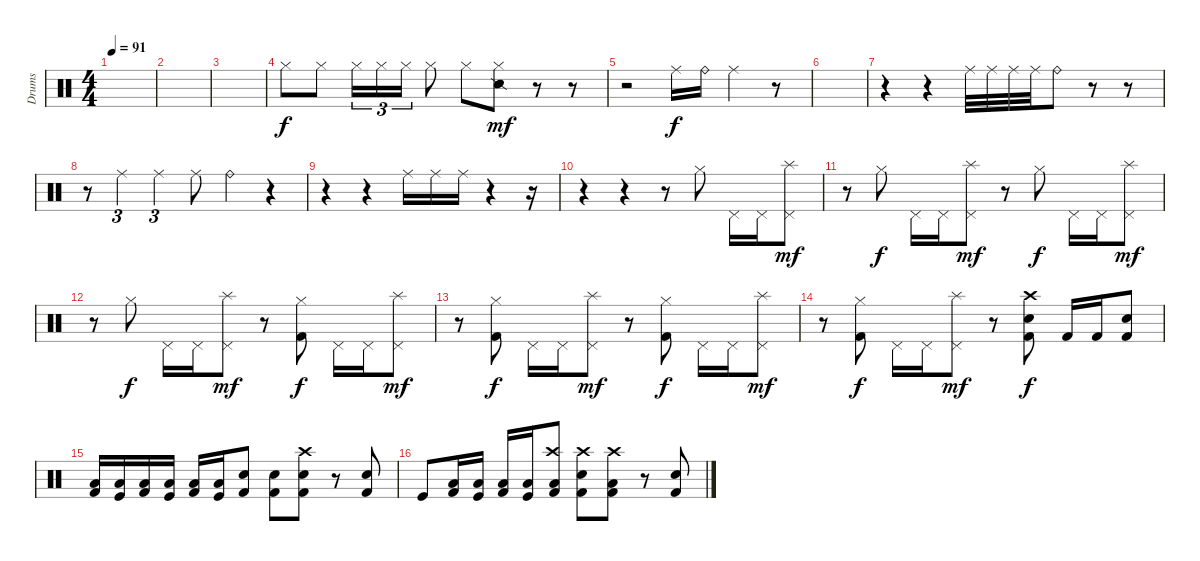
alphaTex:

\track ("Drums" "Drums") {instrument percussion}
\staff {score}
\articulation defaults
\ts (4 4)
\tempo 91
\clef neutral
\ks c
|
|
|
"Hi-Hat (closed)".8 "Hi-Hat (closed)".8 "Hi-Hat (closed)".16{tu (3 2)} "Hi-Hat (closed)".16{tu (3 2)} "Hi-Hat (closed)".16{tu (3 2)} "Hi-Hat (closed)".8 "Hi-Hat (closed)".8 ("Hi-Hat (closed)" "Snare (side stick) 2").8{dy mf} r.8 r.8 |
r.2 "Ride (middle)".16{dy f} "Ride (bell)".16 "Ride (middle)".4 r.8 |
|
r.4 r.4 "Ride (middle)".32 "Ride (middle)".32 "Ride (middle)".32 "Ride (middle)".32 "Ride (bell)".8 r.8 r.8 |
r.8 "Ride (middle)".4{tu (3 2)} "Ride (middle)".4{tu (3 2)} "Ride (middle)".8 "Ride (bell)".4 r.4{tu (3 2)} |
r.4 r.4 "Ride (middle)".16 "Ride (middle)".16 "Ride (middle)".16 r.4 r.16 |
r.4 r.4 r.8 "Hi-Hat (closed)".8 "Pedal Hi-Hat (hit)".16 "Pedal Hi-Hat (hit)".16 ("Pedal Hi-Hat (hit)" "Splash (hit)").8{dy mf} |
r.8 "Hi-Hat (closed)".8{dy f} "Pedal Hi-Hat (hit)".16 "Pedal Hi-Hat (hit)".16 ("Pedal Hi-Hat (hit)" "Splash (hit)").8{dy mf} r.8 "Hi-Hat (closed)".8{dy f} "Pedal Hi-Hat (hit)".16 "Pedal Hi-Hat (hit)".16 ("Pedal Hi-Hat (hit)" "Splash (hit)").8{dy mf} |
r.8 "Hi-Hat (closed)".8{dy f} "Pedal Hi-Hat (hit)".16 "Pedal Hi-Hat (hit)".16 ("Pedal Hi-Hat (hit)" "Splash (hit)").8{dy mf} r.8 ("Hi-Hat (closed)" "Kick (hit) 2").8{dy f} "Pedal Hi-Hat (hit)".16 "Pedal Hi-Hat (hit)".16 ("Pedal Hi-Hat (hit)" "Splash (hit)").8{dy mf} |
r.8 ("Hi-Hat (closed)" "Kick (hit) 2").8{dy f} "Pedal Hi-Hat (hit)".16 "Pedal Hi-Hat (hit)".16 ("Pedal Hi-Hat (hit)" "Splash (hit)").8{dy mf} r.8 ("Hi-Hat (closed)" "Kick (hit) 2").8{dy f} "Pedal Hi-Hat (hit)".16 "Pedal Hi-Hat (hit)".16 ("Pedal Hi-Hat (hit)" "Splash (hit)").8{dy mf} |
r.8 ("Hi-Hat (closed)" "Kick (hit) 2").8{dy f} "Pedal Hi-Hat (hit)".16 "Pedal Hi-Hat (hit)".16 ("Pedal Hi-Hat (hit)" "Splash (hit)").8{dy mf} r.8 ("Kick (hit) 2" "Electric Snare (hit)" "Crash high (hit)").8{dy f} "Kick (hit) 2".16 "Kick (hit) 2".16 ("Kick (hit) 2" "Electric Snare (hit)").8 |
("Kick (hit) 2" "Low Floor Tom (hit)").16 ("Kick (hit)" "Low Floor Tom (hit)").16 ("Kick (hit) 2" "Low Floor Tom (hit)").16 ("Kick (hit)" "Low Floor Tom (hit)").16 ("Kick (hit) 2" "Low Floor Tom (hit)").16 ("Kick (hit)" "Low Floor Tom (hit)").16 ("Kick (hit) 2" "Electric Snare (hit)").8 ("Kick (hit) 2" "Electric Snare (hit)").8 ("Kick (hit) 2" "Electric Snare (hit)" "Crash high (hit)").8 r.8 ("Kick (hit) 2" "Electric Snare (hit)").8 |
"Kick (hit)".8 ("Kick (hit) 2" "Low Floor Tom (hit)").16 ("Kick (hit)" "Low Floor Tom (hit)").16 ("Kick (hit) 2" "Low Floor Tom (hit)").16 ("Kick (hit)" "Low Floor Tom (hit)").16 ("Kick (hit) 2" "Low Floor Tom (hit)" "Crash high (hit)").8 ("Kick (hit) 2" "Electric Snare (hit)" "Crash high (hit)").8 ("Kick (hit) 2" "Low Floor Tom (hit)" "Crash high (hit)").8 r.8 ("Kick (hit) 2" "Electric Snare (hit)").8
